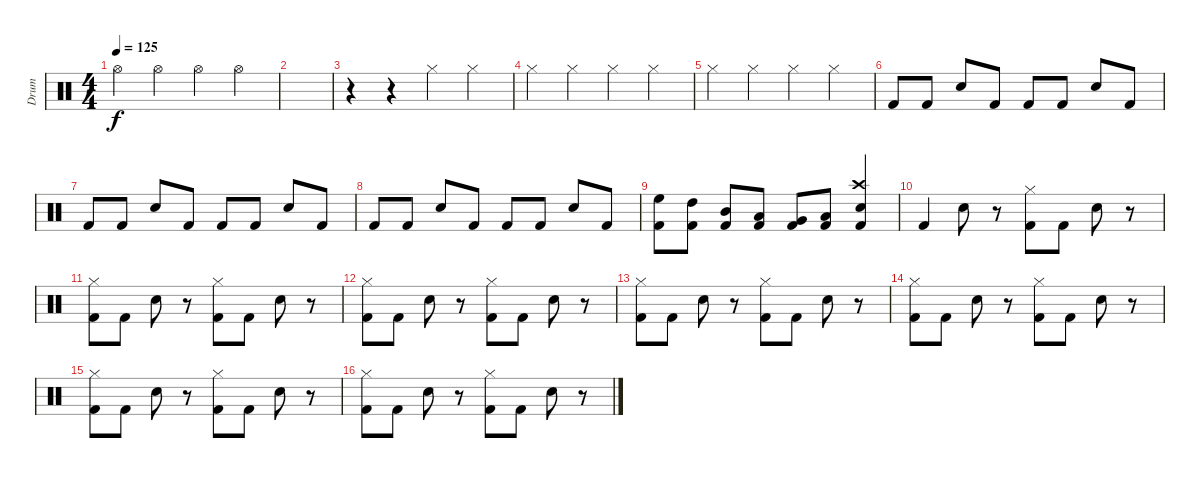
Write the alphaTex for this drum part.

\track ("Drum" "Drum") {instrument percussion}
\staff {score}
\articulation defaults
\ts (4 4)
\tempo 125
\clef neutral
\ks c "Hi-Hat (open)".4{dy f} "Hi-Hat (open)".4 "Hi-Hat (open)".4 "Hi-Hat (open)".4
|
|
r.4 r.4 "Hi-Hat (closed)".4 "Hi-Hat (closed)".4 |
"Hi-Hat (closed)".4 "Hi-Hat (closed)".4 "Hi-Hat (closed)".4 "Hi-Hat (closed)".4 |
"Hi-Hat (closed)".4 "Hi-Hat (closed)".4 "Hi-Hat (closed)".4 "Hi-Hat (closed)".4 |
"Kick (hit) 2".8 "Kick (hit) 2".8 "Electric Snare (hit)".8 "Kick (hit) 2".8 "Kick (hit) 2".8 "Kick (hit) 2".8 "Electric Snare (hit)".8 "Kick (hit) 2".8 |
"Kick (hit) 2".8 "Kick (hit) 2".8 "Electric Snare (hit)".8 "Kick (hit) 2".8 "Kick (hit) 2".8 "Kick (hit) 2".8 "Electric Snare (hit)".8 "Kick (hit) 2".8 |
"Kick (hit) 2".8 "Kick (hit) 2".8 "Electric Snare (hit)".8 "Kick (hit) 2".8 "Kick (hit) 2".8 "Kick (hit) 2".8 "Electric Snare (hit)".8 "Kick (hit) 2".8 |
("High Floor Tom (hit)" "Kick (hit) 2").8 ("High Tom (hit)" "Kick (hit) 2").8 ("Mid Tom (hit)" "Kick (hit) 2").8 ("Low Tom (hit)" "Kick (hit) 2").8 ("Very Low Tom (hit)" "Kick (hit) 2").8 ("Low Floor Tom (hit)" "Kick (hit) 2").8 ("Crash high (hit)" "Snare (hit) 2" "Kick (hit) 2").4 |
"Kick (hit) 2".4 "Snare (hit) 2".8 r.8 ("Hi-Hat (closed)" "Kick (hit) 2").8 "Kick (hit) 2".8 "Snare (hit) 2".8 r.8 |
("Hi-Hat (closed)" "Kick (hit) 2").8 "Kick (hit) 2".8 "Snare (hit) 2".8 r.8 ("Hi-Hat (closed)" "Kick (hit) 2").8 "Kick (hit) 2".8 "Snare (hit) 2".8 r.8 |
("Hi-Hat (closed)" "Kick (hit) 2").8 "Kick (hit) 2".8 "Snare (hit) 2".8 r.8 ("Hi-Hat (closed)" "Kick (hit) 2").8 "Kick (hit) 2".8 "Snare (hit) 2".8 r.8 |
("Hi-Hat (closed)" "Kick (hit) 2").8 "Kick (hit) 2".8 "Snare (hit) 2".8 r.8 ("Hi-Hat (closed)" "Kick (hit) 2").8 "Kick (hit) 2".8 "Snare (hit) 2".8 r.8 |
("Hi-Hat (closed)" "Kick (hit) 2").8 "Kick (hit) 2".8 "Snare (hit) 2".8 r.8 ("Hi-Hat (closed)" "Kick (hit) 2").8 "Kick (hit) 2".8 "Snare (hit) 2".8 r.8 |
("Hi-Hat (closed)" "Kick (hit) 2").8 "Kick (hit) 2".8 "Snare (hit) 2".8 r.8 ("Hi-Hat (closed)" "Kick (hit) 2").8 "Kick (hit) 2".8 "Snare (hit) 2".8 r.8 |
("Hi-Hat (closed)" "Kick (hit) 2").8 "Kick (hit) 2".8 "Snare (hit) 2".8 r.8 ("Hi-Hat (closed)" "Kick (hit) 2").8 "Kick (hit) 2".8 "Snare (hit) 2".8 r.8
